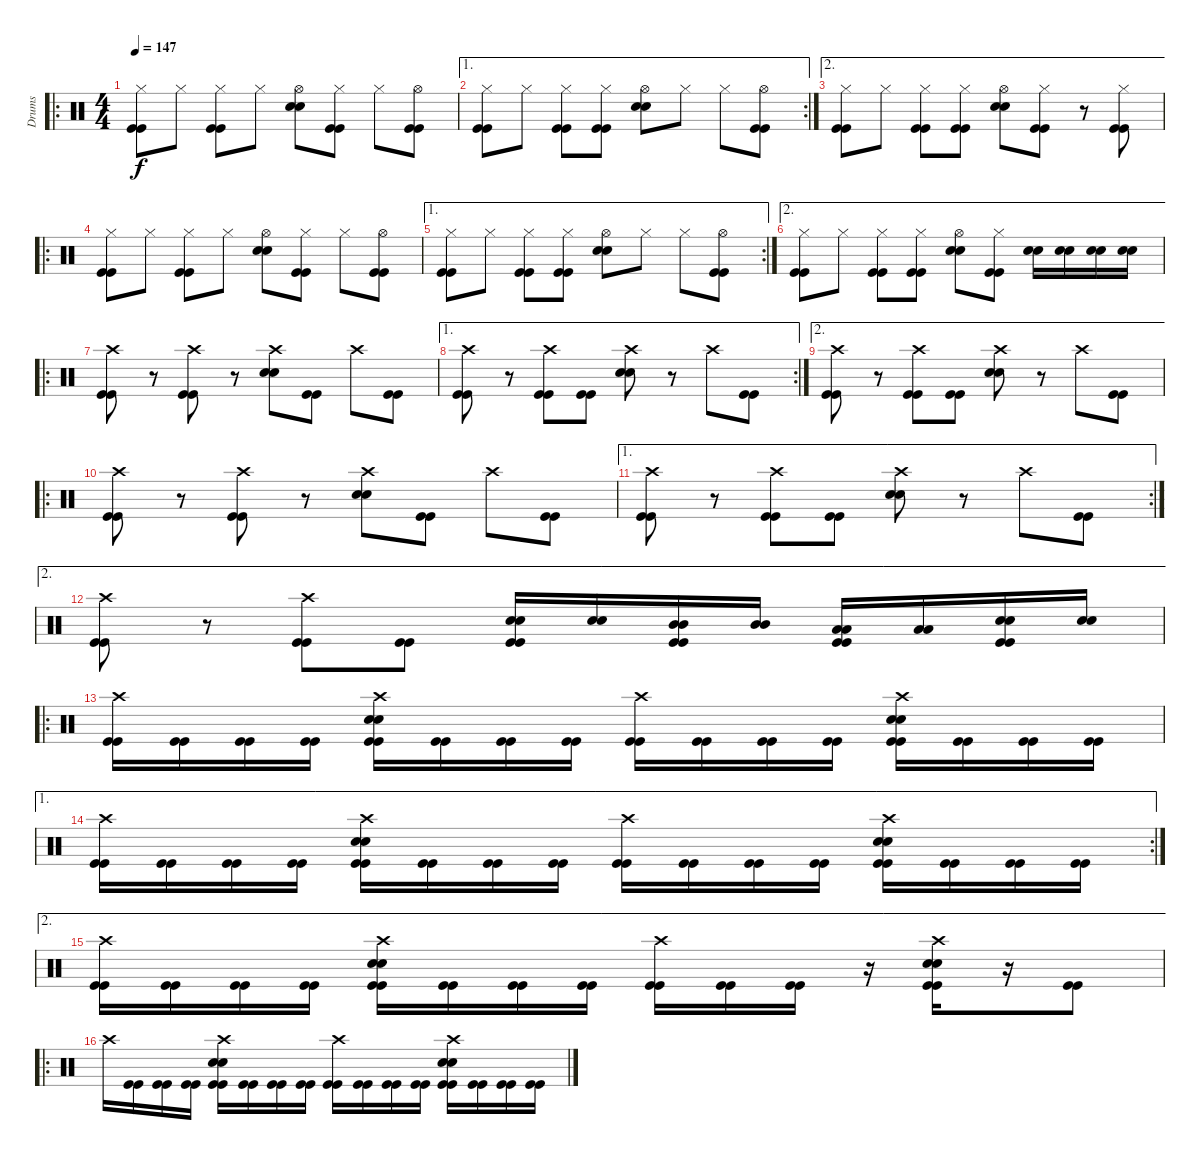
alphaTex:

\track ("Drums" "Drums") {instrument percussion}
\staff {score}
\articulation defaults
\ro
\ts (4 4)
\tempo 147
\clef neutral
\ks c
("Hi-Hat (closed)" "Kick (hit)" "Kick (hit)").8{dy f} "Hi-Hat (closed)".8 ("Hi-Hat (closed)" "Kick (hit)" "Kick (hit)").8 "Hi-Hat (closed)".8 ("Hi-Hat (open)" "Snare (hit) 2" "Snare (hit) 2").8 ("Hi-Hat (closed)" "Kick (hit)" "Kick (hit)").8 "Hi-Hat (closed)".8 ("Hi-Hat (open)" "Kick (hit)" "Kick (hit)").8 |
\ae 1
\rc 2
("Hi-Hat (closed)" "Kick (hit)" "Kick (hit)").8 "Hi-Hat (closed)".8 ("Hi-Hat (closed)" "Kick (hit)" "Kick (hit)").8 ("Hi-Hat (closed)" "Kick (hit)" "Kick (hit)").8 ("Hi-Hat (open)" "Snare (hit) 2" "Snare (hit) 2").8 "Hi-Hat (closed)".8 "Hi-Hat (closed)".8 ("Hi-Hat (open)" "Kick (hit)" "Kick (hit)").8 |
\ae 2
("Hi-Hat (closed)" "Kick (hit)" "Kick (hit)").8 "Hi-Hat (closed)".8 ("Hi-Hat (closed)" "Kick (hit)" "Kick (hit)").8 ("Hi-Hat (closed)" "Kick (hit)" "Kick (hit)").8 ("Hi-Hat (open)" "Snare (hit) 2" "Snare (hit) 2").8 ("Hi-Hat (closed)" "Kick (hit)" "Kick (hit)").8 r.8 ("Hi-Hat (closed)" "Kick (hit)" "Kick (hit)").8 |
\ro
("Hi-Hat (closed)" "Kick (hit)" "Kick (hit)").8 "Hi-Hat (closed)".8 ("Hi-Hat (closed)" "Kick (hit)" "Kick (hit)").8 "Hi-Hat (closed)".8 ("Hi-Hat (open)" "Snare (hit) 2" "Snare (hit) 2").8 ("Hi-Hat (closed)" "Kick (hit)" "Kick (hit)").8 "Hi-Hat (closed)".8 ("Hi-Hat (open)" "Kick (hit)" "Kick (hit)").8 |
\ae 1
\rc 2
("Hi-Hat (closed)" "Kick (hit)" "Kick (hit)").8 "Hi-Hat (closed)".8 ("Hi-Hat (closed)" "Kick (hit)" "Kick (hit)").8 ("Hi-Hat (closed)" "Kick (hit)" "Kick (hit)").8 ("Hi-Hat (open)" "Snare (hit) 2" "Snare (hit) 2").8 "Hi-Hat (closed)".8 "Hi-Hat (closed)".8 ("Hi-Hat (open)" "Kick (hit)" "Kick (hit)").8 |
\ae 2
("Hi-Hat (closed)" "Kick (hit)" "Kick (hit)").8 "Hi-Hat (closed)".8 ("Hi-Hat (closed)" "Kick (hit)" "Kick (hit)").8 ("Hi-Hat (closed)" "Kick (hit)" "Kick (hit)").8 ("Hi-Hat (open)" "Snare (hit) 2" "Snare (hit) 2").8 ("Hi-Hat (closed)" "Kick (hit)" "Kick (hit)").8 ("Snare (hit) 2" "Snare (hit) 2").16 ("Snare (hit) 2" "Snare (hit) 2").16 ("Snare (hit) 2" "Snare (hit) 2").16 ("Snare (hit) 2" "Snare (hit) 2").16 |
\ro
("Crash high (hit)" "Kick (hit)" "Kick (hit)").8 r.8 ("Crash high (hit)" "Kick (hit)" "Kick (hit)").8 r.8 ("Crash high (hit)" "Snare (hit) 2" "Snare (hit) 2").8 ("Kick (hit)" "Kick (hit)").8 "Crash high (hit)".8 ("Kick (hit)" "Kick (hit)").8 |
\ae 1
\rc 2
("Crash high (hit)" "Kick (hit)" "Kick (hit)").8 r.8 ("Crash high (hit)" "Kick (hit)" "Kick (hit)").8 ("Kick (hit)" "Kick (hit)").8 ("Crash high (hit)" "Snare (hit) 2" "Snare (hit) 2").8 r.8 "Crash high (hit)".8 ("Kick (hit)" "Kick (hit)").8 |
\ae 2
("Crash high (hit)" "Kick (hit)" "Kick (hit)").8 r.8 ("Crash high (hit)" "Kick (hit)" "Kick (hit)").8 ("Kick (hit)" "Kick (hit)").8 ("Crash high (hit)" "Snare (hit) 2" "Snare (hit) 2").8 r.8 "Crash high (hit)".8 ("Kick (hit)" "Kick (hit)").8 |
\ro
("Crash high (hit)" "Kick (hit)" "Kick (hit)").8 r.8 ("Crash high (hit)" "Kick (hit)" "Kick (hit)").8 r.8 ("Crash high (hit)" "Snare (hit) 2" "Snare (hit) 2").8 ("Kick (hit)" "Kick (hit)").8 "Crash high (hit)".8 ("Kick (hit)" "Kick (hit)").8 |
\ae 1
\rc 2
("Crash high (hit)" "Kick (hit)" "Kick (hit)").8 r.8 ("Crash high (hit)" "Kick (hit)" "Kick (hit)").8 ("Kick (hit)" "Kick (hit)").8 ("Crash high (hit)" "Snare (hit) 2" "Snare (hit) 2").8 r.8 "Crash high (hit)".8 ("Kick (hit)" "Kick (hit)").8 |
\ae 2
("Crash high (hit)" "Kick (hit)" "Kick (hit)").8 r.8 ("Crash high (hit)" "Kick (hit)" "Kick (hit)").8 ("Kick (hit)" "Kick (hit)").8 ("Kick (hit)" "Kick (hit)" "Snare (hit) 2" "Snare (hit) 2").16 ("Snare (hit) 2" "Snare (hit) 2").16 ("Kick (hit)" "Kick (hit)" "Mid Tom (hit)" "Mid Tom (hit)").16 ("Mid Tom (hit)" "Mid Tom (hit)").16 ("Kick (hit)" "Kick (hit)" "Low Tom (hit)" "Low Tom (hit)").16 ("Low Tom (hit)" "Low Tom (hit)").16 ("Kick (hit)" "Kick (hit)" "Snare (hit) 2" "Snare (hit) 2").16 ("Snare (hit) 2" "Snare (hit) 2").16 |
\ro
("Crash high (hit)" "Kick (hit)" "Kick (hit)").16 ("Kick (hit)" "Kick (hit)").16 ("Kick (hit)" "Kick (hit)").16 ("Kick (hit)" "Kick (hit)").16 ("Crash high (hit)" "Snare (hit) 2" "Snare (hit) 2" "Kick (hit)" "Kick (hit)").16 ("Kick (hit)" "Kick (hit)").16 ("Kick (hit)" "Kick (hit)").16 ("Kick (hit)" "Kick (hit)").16 ("Crash high (hit)" "Kick (hit)" "Kick (hit)").16 ("Kick (hit)" "Kick (hit)").16 ("Kick (hit)" "Kick (hit)").16 ("Kick (hit)" "Kick (hit)").16 ("Crash high (hit)" "Snare (hit) 2" "Snare (hit) 2" "Kick (hit)" "Kick (hit)").16 ("Kick (hit)" "Kick (hit)").16 ("Kick (hit)" "Kick (hit)").16 ("Kick (hit)" "Kick (hit)").16 |
\ae 1
\rc 2
("Crash high (hit)" "Kick (hit)" "Kick (hit)").16 ("Kick (hit)" "Kick (hit)").16 ("Kick (hit)" "Kick (hit)").16 ("Kick (hit)" "Kick (hit)").16 ("Crash high (hit)" "Snare (hit) 2" "Snare (hit) 2" "Kick (hit)" "Kick (hit)").16 ("Kick (hit)" "Kick (hit)").16 ("Kick (hit)" "Kick (hit)").16 ("Kick (hit)" "Kick (hit)").16 ("Crash high (hit)" "Kick (hit)" "Kick (hit)").16 ("Kick (hit)" "Kick (hit)").16 ("Kick (hit)" "Kick (hit)").16 ("Kick (hit)" "Kick (hit)").16 ("Crash high (hit)" "Snare (hit) 2" "Snare (hit) 2" "Kick (hit)" "Kick (hit)").16 ("Kick (hit)" "Kick (hit)").16 ("Kick (hit)" "Kick (hit)").16 ("Kick (hit)" "Kick (hit)").16 |
\ae 2
("Crash high (hit)" "Kick (hit)" "Kick (hit)").16 ("Kick (hit)" "Kick (hit)").16 ("Kick (hit)" "Kick (hit)").16 ("Kick (hit)" "Kick (hit)").16 ("Crash high (hit)" "Snare (hit) 2" "Snare (hit) 2" "Kick (hit)" "Kick (hit)").16 ("Kick (hit)" "Kick (hit)").16 ("Kick (hit)" "Kick (hit)").16 ("Kick (hit)" "Kick (hit)").16 ("Crash high (hit)" "Kick (hit)" "Kick (hit)").16 ("Kick (hit)" "Kick (hit)").16 ("Kick (hit)" "Kick (hit)").16 r.16 ("Crash high (hit)" "Snare (hit) 2" "Snare (hit) 2" "Kick (hit)" "Kick (hit)").16 r.16 ("Kick (hit)" "Kick (hit)").8 |
\ro "Crash high (hit)".16
("Kick (hit)" "Kick (hit)").16 ("Kick (hit)" "Kick (hit)").16 ("Kick (hit)" "Kick (hit)").16 ("Crash high (hit)" "Snare (hit) 2" "Snare (hit) 2" "Kick (hit)" "Kick (hit)").16 ("Kick (hit)" "Kick (hit)").16 ("Kick (hit)" "Kick (hit)").16 ("Kick (hit)" "Kick (hit)").16 ("Crash high (hit)" "Kick (hit)" "Kick (hit)").16 ("Kick (hit)" "Kick (hit)").16 ("Kick (hit)" "Kick (hit)").16 ("Kick (hit)" "Kick (hit)").16 ("Crash high (hit)" "Snare (hit) 2" "Snare (hit) 2" "Kick (hit)" "Kick (hit)").16 ("Kick (hit)" "Kick (hit)").16 ("Kick (hit)" "Kick (hit)").16 ("Kick (hit)" "Kick (hit)").16
